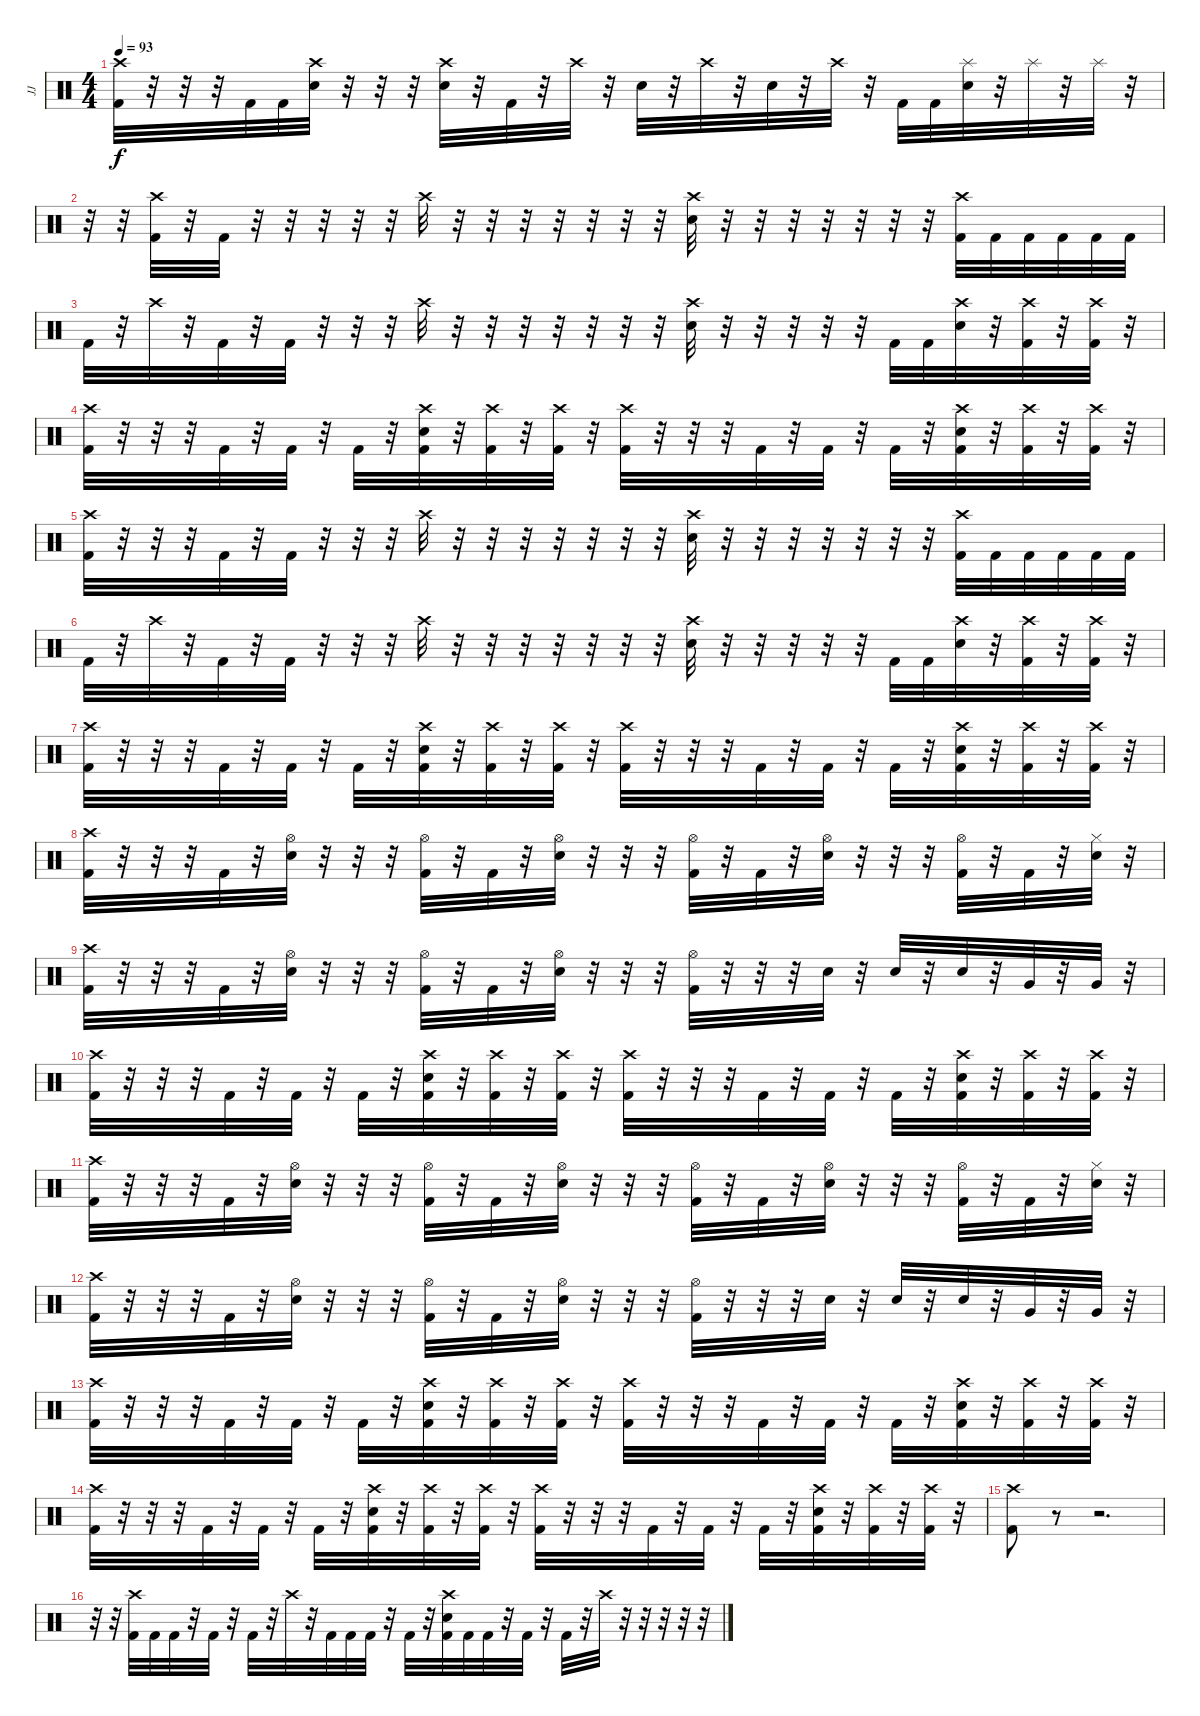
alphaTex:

\track ("JJ" "JJ") {instrument percussion}
\staff {score}
\articulation defaults
\ts (4 4)
\tempo 93
\clef neutral
\ks c
("Crash high (hit)" "Kick (hit) 2").32{dy f} r.32 r.32 r.32 "Kick (hit) 2".32 "Kick (hit) 2".32 ("Crash high (hit)" "Electric Snare (hit)").32 r.32 r.32 r.32 ("Crash high (hit)" "Electric Snare (hit)").32 r.32 "Kick (hit) 2".32 r.32 "Crash high (hit)".32 r.32 "Electric Snare (hit)".32 r.32 "Crash high (hit)".32 r.32 "Electric Snare (hit)".32 r.32 "Crash high (hit)".32 r.32 "Kick (hit) 2".32 "Kick (hit) 2".32 ("Splash (hit)" "Electric Snare (hit)").32 r.32 "Splash (hit)".32 r.32 "Splash (hit)".32 r.32 |
r.32 r.32 ("Crash high (hit)" "Kick (hit) 2").32 r.32 "Kick (hit) 2".32 r.32 r.32 r.32 r.32 r.32 "Crash high (hit)".32 r.32 r.32 r.32 r.32 r.32 r.32 r.32 ("Crash high (hit)" "Electric Snare (hit)").32 r.32 r.32 r.32 r.32 r.32 r.32 r.32 ("Crash high (hit)" "Kick (hit) 2").32 "Kick (hit) 2".32 "Kick (hit) 2".32 "Kick (hit) 2".32 "Kick (hit) 2".32 "Kick (hit) 2".32 |
"Kick (hit) 2".32 r.32 "Crash high (hit)".32 r.32 "Kick (hit) 2".32 r.32 "Kick (hit) 2".32 r.32 r.32 r.32 "Crash high (hit)".32 r.32 r.32 r.32 r.32 r.32 r.32 r.32 ("Crash high (hit)" "Electric Snare (hit)").32 r.32 r.32 r.32 r.32 r.32 "Kick (hit) 2".32 "Kick (hit) 2".32 ("Crash high (hit)" "Electric Snare (hit)").32 r.32 ("Crash high (hit)" "Kick (hit) 2").32 r.32 ("Crash high (hit)" "Kick (hit) 2").32 r.32 |
("Crash high (hit)" "Kick (hit) 2").32 r.32 r.32 r.32 "Kick (hit) 2".32 r.32 "Kick (hit) 2".32 r.32 "Kick (hit) 2".32 r.32 ("Crash high (hit)" "Electric Snare (hit)" "Kick (hit) 2").32 r.32 ("Crash high (hit)" "Kick (hit) 2").32 r.32 ("Crash high (hit)" "Kick (hit) 2").32 r.32 ("Crash high (hit)" "Kick (hit) 2").32 r.32 r.32 r.32 "Kick (hit) 2".32 r.32 "Kick (hit) 2".32 r.32 "Kick (hit) 2".32 r.32 ("Crash high (hit)" "Electric Snare (hit)" "Kick (hit) 2").32 r.32 ("Crash high (hit)" "Kick (hit) 2").32 r.32 ("Crash high (hit)" "Kick (hit) 2").32 r.32 |
("Crash high (hit)" "Kick (hit) 2").32 r.32 r.32 r.32 "Kick (hit) 2".32 r.32 "Kick (hit) 2".32 r.32 r.32 r.32 "Crash high (hit)".32 r.32 r.32 r.32 r.32 r.32 r.32 r.32 ("Crash high (hit)" "Electric Snare (hit)").32 r.32 r.32 r.32 r.32 r.32 r.32 r.32 ("Crash high (hit)" "Kick (hit) 2").32 "Kick (hit) 2".32 "Kick (hit) 2".32 "Kick (hit) 2".32 "Kick (hit) 2".32 "Kick (hit) 2".32 |
"Kick (hit) 2".32 r.32 "Crash high (hit)".32 r.32 "Kick (hit) 2".32 r.32 "Kick (hit) 2".32 r.32 r.32 r.32 "Crash high (hit)".32 r.32 r.32 r.32 r.32 r.32 r.32 r.32 ("Crash high (hit)" "Electric Snare (hit)").32 r.32 r.32 r.32 r.32 r.32 "Kick (hit) 2".32 "Kick (hit) 2".32 ("Crash high (hit)" "Electric Snare (hit)").32 r.32 ("Crash high (hit)" "Kick (hit) 2").32 r.32 ("Crash high (hit)" "Kick (hit) 2").32 r.32 |
("Crash high (hit)" "Kick (hit) 2").32 r.32 r.32 r.32 "Kick (hit) 2".32 r.32 "Kick (hit) 2".32 r.32 "Kick (hit) 2".32 r.32 ("Crash high (hit)" "Electric Snare (hit)" "Kick (hit) 2").32 r.32 ("Crash high (hit)" "Kick (hit) 2").32 r.32 ("Crash high (hit)" "Kick (hit) 2").32 r.32 ("Crash high (hit)" "Kick (hit) 2").32 r.32 r.32 r.32 "Kick (hit) 2".32 r.32 "Kick (hit) 2".32 r.32 "Kick (hit) 2".32 r.32 ("Crash high (hit)" "Electric Snare (hit)" "Kick (hit) 2").32 r.32 ("Crash high (hit)" "Kick (hit) 2").32 r.32 ("Crash high (hit)" "Kick (hit) 2").32 r.32 |
("Crash high (hit)" "Kick (hit) 2").32 r.32 r.32 r.32 "Kick (hit) 2".32 r.32 ("Hi-Hat (open)" "Electric Snare (hit)").32 r.32 r.32 r.32 ("Hi-Hat (open)" "Kick (hit) 2").32 r.32 "Kick (hit) 2".32 r.32 ("Hi-Hat (open)" "Electric Snare (hit)").32 r.32 r.32 r.32 ("Hi-Hat (open)" "Kick (hit) 2").32 r.32 "Kick (hit) 2".32 r.32 ("Hi-Hat (open)" "Electric Snare (hit)").32 r.32 r.32 r.32 ("Hi-Hat (open)" "Kick (hit) 2").32 r.32 "Kick (hit) 2".32 r.32 ("Hi-Hat (closed)" "Electric Snare (hit)").32 r.32 |
("Crash high (hit)" "Kick (hit) 2").32 r.32 r.32 r.32 "Kick (hit) 2".32 r.32 ("Hi-Hat (open)" "Electric Snare (hit)").32 r.32 r.32 r.32 ("Hi-Hat (open)" "Kick (hit) 2").32 r.32 "Kick (hit) 2".32 r.32 ("Hi-Hat (open)" "Electric Snare (hit)").32 r.32 r.32 r.32 ("Hi-Hat (open)" "Kick (hit) 2").32 r.32 r.32 r.32 "Electric Snare (hit)".32 r.32 "Electric Snare (hit)".32 r.32 "Electric Snare (hit)".32 r.32 "Very Low Tom (hit)".32 r.32 "Very Low Tom (hit)".32 r.32 |
("Crash high (hit)" "Kick (hit) 2").32 r.32 r.32 r.32 "Kick (hit) 2".32 r.32 "Kick (hit) 2".32 r.32 "Kick (hit) 2".32 r.32 ("Crash high (hit)" "Electric Snare (hit)" "Kick (hit) 2").32 r.32 ("Crash high (hit)" "Kick (hit) 2").32 r.32 ("Crash high (hit)" "Kick (hit) 2").32 r.32 ("Crash high (hit)" "Kick (hit) 2").32 r.32 r.32 r.32 "Kick (hit) 2".32 r.32 "Kick (hit) 2".32 r.32 "Kick (hit) 2".32 r.32 ("Crash high (hit)" "Electric Snare (hit)" "Kick (hit) 2").32 r.32 ("Crash high (hit)" "Kick (hit) 2").32 r.32 ("Crash high (hit)" "Kick (hit) 2").32 r.32 |
("Crash high (hit)" "Kick (hit) 2").32 r.32 r.32 r.32 "Kick (hit) 2".32 r.32 ("Hi-Hat (open)" "Electric Snare (hit)").32 r.32 r.32 r.32 ("Hi-Hat (open)" "Kick (hit) 2").32 r.32 "Kick (hit) 2".32 r.32 ("Hi-Hat (open)" "Electric Snare (hit)").32 r.32 r.32 r.32 ("Hi-Hat (open)" "Kick (hit) 2").32 r.32 "Kick (hit) 2".32 r.32 ("Hi-Hat (open)" "Electric Snare (hit)").32 r.32 r.32 r.32 ("Hi-Hat (open)" "Kick (hit) 2").32 r.32 "Kick (hit) 2".32 r.32 ("Hi-Hat (closed)" "Electric Snare (hit)").32 r.32 |
("Crash high (hit)" "Kick (hit) 2").32 r.32 r.32 r.32 "Kick (hit) 2".32 r.32 ("Hi-Hat (open)" "Electric Snare (hit)").32 r.32 r.32 r.32 ("Hi-Hat (open)" "Kick (hit) 2").32 r.32 "Kick (hit) 2".32 r.32 ("Hi-Hat (open)" "Electric Snare (hit)").32 r.32 r.32 r.32 ("Hi-Hat (open)" "Kick (hit) 2").32 r.32 r.32 r.32 "Electric Snare (hit)".32 r.32 "Electric Snare (hit)".32 r.32 "Electric Snare (hit)".32 r.32 "Very Low Tom (hit)".32 r.32 "Very Low Tom (hit)".32 r.32 |
("Crash high (hit)" "Kick (hit) 2").32 r.32 r.32 r.32 "Kick (hit) 2".32 r.32 "Kick (hit) 2".32 r.32 "Kick (hit) 2".32 r.32 ("Crash high (hit)" "Electric Snare (hit)" "Kick (hit) 2").32 r.32 ("Crash high (hit)" "Kick (hit) 2").32 r.32 ("Crash high (hit)" "Kick (hit) 2").32 r.32 ("Crash high (hit)" "Kick (hit) 2").32 r.32 r.32 r.32 "Kick (hit) 2".32 r.32 "Kick (hit) 2".32 r.32 "Kick (hit) 2".32 r.32 ("Crash high (hit)" "Electric Snare (hit)" "Kick (hit) 2").32 r.32 ("Crash high (hit)" "Kick (hit) 2").32 r.32 ("Crash high (hit)" "Kick (hit) 2").32 r.32 |
("Crash high (hit)" "Kick (hit) 2").32 r.32 r.32 r.32 "Kick (hit) 2".32 r.32 "Kick (hit) 2".32 r.32 "Kick (hit) 2".32 r.32 ("Crash high (hit)" "Electric Snare (hit)" "Kick (hit) 2").32 r.32 ("Crash high (hit)" "Kick (hit) 2").32 r.32 ("Crash high (hit)" "Kick (hit) 2").32 r.32 ("Crash high (hit)" "Kick (hit) 2").32 r.32 r.32 r.32 "Kick (hit) 2".32 r.32 "Kick (hit) 2".32 r.32 "Kick (hit) 2".32 r.32 ("Crash high (hit)" "Electric Snare (hit)" "Kick (hit) 2").32 r.32 ("Crash high (hit)" "Kick (hit) 2").32 r.32 ("Crash high (hit)" "Kick (hit) 2").32 r.32 |
("Crash high (hit)" "Kick (hit) 2").8 r.8{volume 0} r.2{d} |
r.32 r.32 ("Crash high (hit)" "Kick (hit) 2").32{volume 16} "Kick (hit) 2".32 "Kick (hit) 2".32 r.32 "Kick (hit) 2".32 r.32 "Kick (hit) 2".32 r.32 "Crash high (hit)".32 r.32 "Kick (hit) 2".32 "Kick (hit) 2".32 "Kick (hit) 2".32 r.32 "Kick (hit) 2".32 r.32 ("Crash high (hit)" "Electric Snare (hit)" "Kick (hit) 2").32 "Kick (hit) 2".32 "Kick (hit) 2".32 r.32 "Kick (hit) 2".32 r.32 "Kick (hit) 2".32 r.32 "Crash high (hit)".32 r.32 r.32 r.32 r.32 r.32
